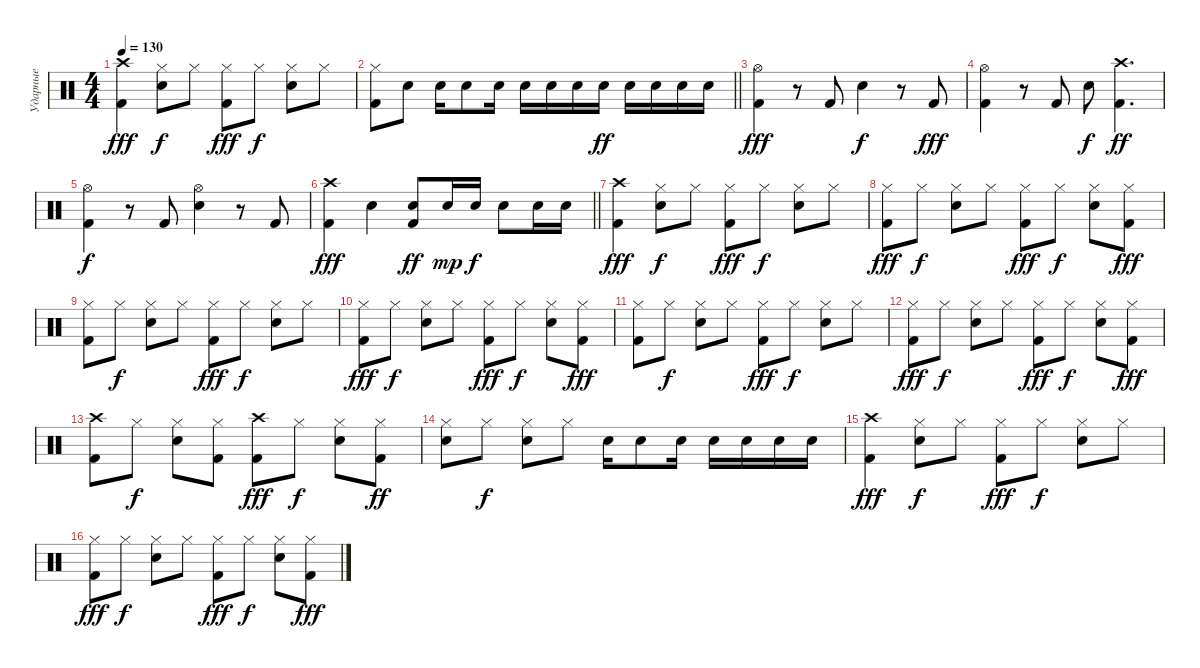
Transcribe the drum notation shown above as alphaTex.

\track ("Ударные" "Ударные") {instrument percussion}
\staff {score}
\articulation defaults
\ts (4 4)
\tempo 130
\clef neutral
\ks c
("Kick (hit) 2" "Crash high (hit)").4{dy fff} ("Snare (hit) 2" "Hi-Hat (closed)").8{dy f} "Hi-Hat (closed)".8 ("Kick (hit) 2" "Hi-Hat (closed)").8{dy fff} "Hi-Hat (closed)".8{dy f} ("Snare (hit) 2" "Hi-Hat (closed)").8 "Hi-Hat (closed)".8 |
\barLineRight lightlight
("Kick (hit) 2" "Hi-Hat (closed)").8 "Snare (hit) 2".8 "Snare (hit) 2".16 "Snare (hit) 2".8 "Snare (hit) 2".16 "Snare (hit) 2".16 "Snare (hit) 2".16 "Snare (hit) 2".16 "Electric Snare (hit)".16{dy ff} "Electric Snare (hit)".16 "Electric Snare (hit)".16 "Electric Snare (hit)".16 "Electric Snare (hit)".16 |
("Kick (hit) 2" "Hi-Hat (open)").4{dy fff} r.8 "Kick (hit) 2".8 "Snare (hit) 2".4{dy f} r.8 "Kick (hit) 2".8{dy fff} |
("Kick (hit) 2" "Hi-Hat (open)").4 r.8 "Kick (hit) 2".8 "Snare (hit) 2".8{dy f} ("Kick (hit) 2" "Crash high (hit)").4{d dy ff} |
("Kick (hit) 2" "Hi-Hat (open)").4{dy f} r.8 "Kick (hit) 2".8 ("Snare (hit) 2" "Hi-Hat (open)").4 r.8 "Kick (hit) 2".8 |
\barLineRight lightlight
("Kick (hit) 2" "Crash high (hit)").4{dy fff} "Snare (hit) 2".4 ("Kick (hit) 2" "Snare (hit) 2").8{dy ff} "Snare (hit) 2".16{dy mp} "Snare (hit) 2".16{dy f} "Snare (hit) 2".8 "Snare (hit) 2".16 "Snare (hit) 2".16 |
("Kick (hit) 2" "Crash high (hit)").4{dy fff} ("Snare (hit) 2" "Hi-Hat (closed)").8{dy f} "Hi-Hat (closed)".8 ("Kick (hit) 2" "Hi-Hat (closed)").8{dy fff} "Hi-Hat (closed)".8{dy f} ("Snare (hit) 2" "Hi-Hat (closed)").8 "Hi-Hat (closed)".8 |
("Kick (hit) 2" "Hi-Hat (closed)").8{dy fff} "Hi-Hat (closed)".8{dy f} ("Snare (hit) 2" "Hi-Hat (closed)").8 "Hi-Hat (closed)".8 ("Kick (hit) 2" "Hi-Hat (closed)").8{dy fff} "Hi-Hat (closed)".8{dy f} ("Snare (hit) 2" "Hi-Hat (closed)").8 ("Kick (hit) 2" "Hi-Hat (closed)").8{dy fff} |
("Kick (hit) 2" "Hi-Hat (closed)").8 "Hi-Hat (closed)".8{dy f} ("Snare (hit) 2" "Hi-Hat (closed)").8 "Hi-Hat (closed)".8 ("Kick (hit) 2" "Hi-Hat (closed)").8{dy fff} "Hi-Hat (closed)".8{dy f} ("Snare (hit) 2" "Hi-Hat (closed)").8 "Hi-Hat (closed)".8 |
("Kick (hit) 2" "Hi-Hat (closed)").8{dy fff} "Hi-Hat (closed)".8{dy f} ("Snare (hit) 2" "Hi-Hat (closed)").8 "Hi-Hat (closed)".8 ("Kick (hit) 2" "Hi-Hat (closed)").8{dy fff} "Hi-Hat (closed)".8{dy f} ("Snare (hit) 2" "Hi-Hat (closed)").8 ("Kick (hit) 2" "Hi-Hat (closed)").8{dy fff} |
("Kick (hit) 2" "Hi-Hat (closed)").8 "Hi-Hat (closed)".8{dy f} ("Snare (hit) 2" "Hi-Hat (closed)").8 "Hi-Hat (closed)".8 ("Kick (hit) 2" "Hi-Hat (closed)").8{dy fff} "Hi-Hat (closed)".8{dy f} ("Snare (hit) 2" "Hi-Hat (closed)").8 "Hi-Hat (closed)".8 |
("Kick (hit) 2" "Hi-Hat (closed)").8{dy fff} "Hi-Hat (closed)".8{dy f} ("Snare (hit) 2" "Hi-Hat (closed)").8 "Hi-Hat (closed)".8 ("Kick (hit) 2" "Hi-Hat (closed)").8{dy fff} "Hi-Hat (closed)".8{dy f} ("Snare (hit) 2" "Hi-Hat (closed)").8 ("Kick (hit) 2" "Hi-Hat (closed)").8{dy fff} |
("Kick (hit) 2" "Crash high (hit)").8 "Hi-Hat (closed)".8{dy f} ("Snare (hit) 2" "Hi-Hat (closed)").8 ("Kick (hit) 2" "Hi-Hat (closed)").8 ("Kick (hit) 2" "Crash high (hit)").8{dy fff} "Hi-Hat (closed)".8{dy f} ("Snare (hit) 2" "Hi-Hat (closed)").8 ("Kick (hit) 2" "Hi-Hat (closed)").8{dy ff} |
("Snare (hit) 2" "Hi-Hat (closed)").8 "Hi-Hat (closed)".8{dy f} ("Snare (hit) 2" "Hi-Hat (closed)").8 "Hi-Hat (closed)".8 "Snare (hit) 2".16 "Snare (hit) 2".8 "Snare (hit) 2".16 "Snare (hit) 2".16 "Snare (hit) 2".16 "Snare (hit) 2".16 "Snare (hit) 2".16 |
("Kick (hit) 2" "Crash high (hit)").4{dy fff} ("Snare (hit) 2" "Hi-Hat (closed)").8{dy f} "Hi-Hat (closed)".8 ("Kick (hit) 2" "Hi-Hat (closed)").8{dy fff} "Hi-Hat (closed)".8{dy f} ("Snare (hit) 2" "Hi-Hat (closed)").8 "Hi-Hat (closed)".8 |
("Kick (hit) 2" "Hi-Hat (closed)").8{dy fff} "Hi-Hat (closed)".8{dy f} ("Snare (hit) 2" "Hi-Hat (closed)").8 "Hi-Hat (closed)".8 ("Kick (hit) 2" "Hi-Hat (closed)").8{dy fff} "Hi-Hat (closed)".8{dy f} ("Snare (hit) 2" "Hi-Hat (closed)").8 ("Kick (hit) 2" "Hi-Hat (closed)").8{dy fff}
